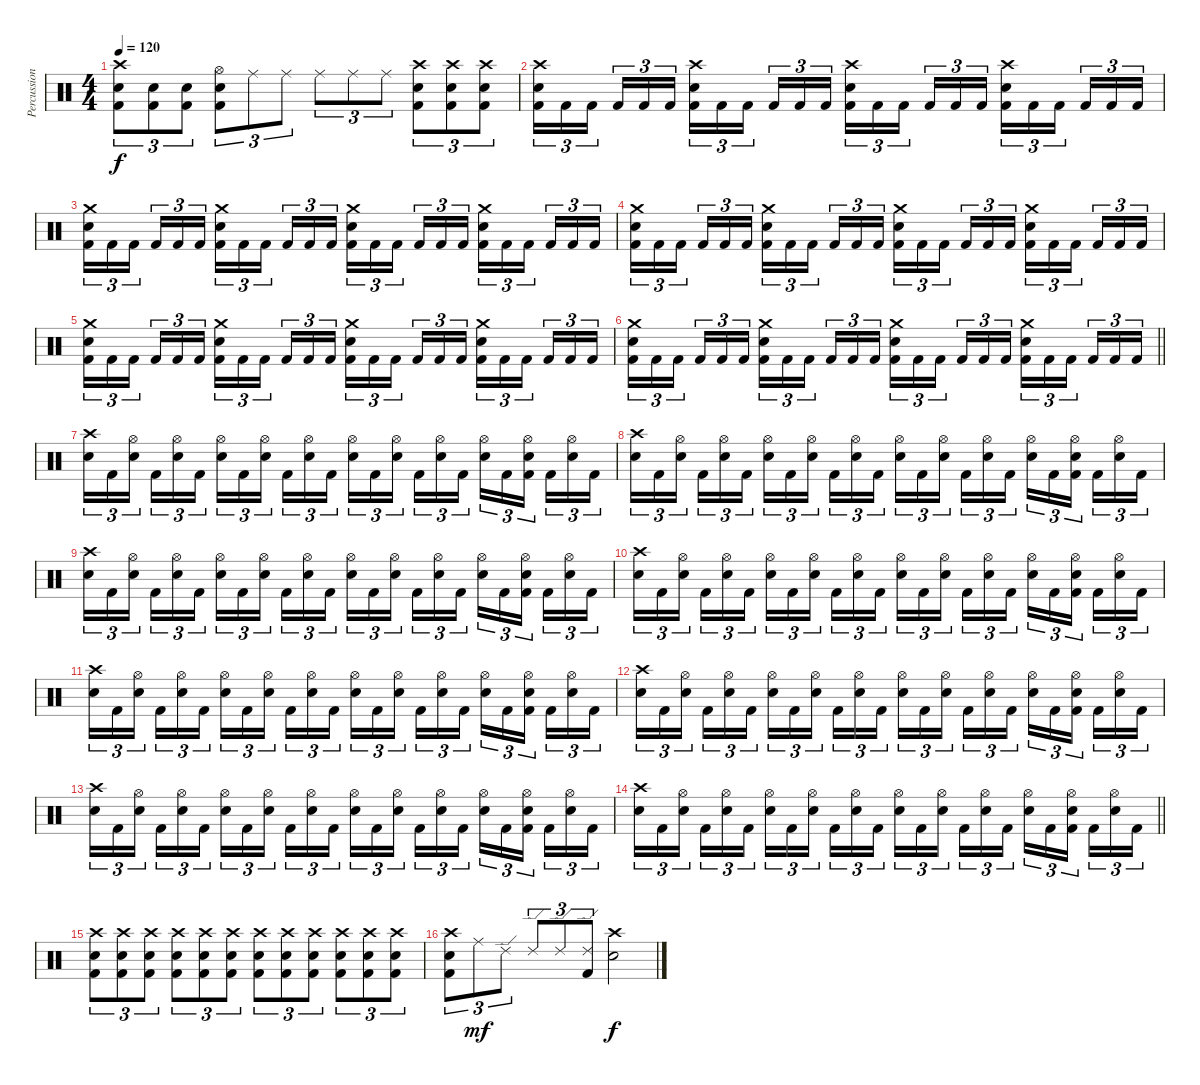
\track ("Percussion" "Percussion") {instrument percussion}
\staff {score}
\articulation defaults
\ts (4 4)
\tempo 120
\clef neutral
\ks c
("Crash high (hit)" "Snare (hit) 2" "Kick (hit) 2").8{tu (3 2) dy f} ("Snare (hit) 2" "Kick (hit) 2").8{tu (3 2)} ("Snare (hit) 2" "Kick (hit) 2").8{tu (3 2)} ("Hi-Hat (open)" "Snare (hit) 2" "Kick (hit) 2").8{tu (3 2)} "Ride (middle)".8{tu (3 2)} "Ride (middle)".8{tu (3 2)} "Ride (middle)".8{tu (3 2)} "Ride (middle)".8{tu (3 2)} "Ride (middle)".8{tu (3 2)} ("Crash high (hit)" "Snare (hit) 2" "Kick (hit) 2").8{tu (3 2)} ("Crash high (hit)" "Snare (hit) 2" "Kick (hit) 2").8{tu (3 2)} ("Crash high (hit)" "Snare (hit) 2" "Kick (hit) 2").8{tu (3 2)} |
("Crash high (hit)" "Snare (hit) 2" "Kick (hit) 2").16{tu (3 2)} "Kick (hit) 2".16{tu (3 2)} "Kick (hit) 2".16{tu (3 2) beam splitsecondary} "Kick (hit) 2".16{tu (3 2)} "Kick (hit) 2".16{tu (3 2)} "Kick (hit) 2".16{tu (3 2)} ("Crash high (hit)" "Snare (hit) 2" "Kick (hit) 2").16{tu (3 2)} "Kick (hit) 2".16{tu (3 2)} "Kick (hit) 2".16{tu (3 2) beam splitsecondary} "Kick (hit) 2".16{tu (3 2)} "Kick (hit) 2".16{tu (3 2)} "Kick (hit) 2".16{tu (3 2)} ("Crash high (hit)" "Snare (hit) 2" "Kick (hit) 2").16{tu (3 2)} "Kick (hit) 2".16{tu (3 2)} "Kick (hit) 2".16{tu (3 2) beam splitsecondary} "Kick (hit) 2".16{tu (3 2)} "Kick (hit) 2".16{tu (3 2)} "Kick (hit) 2".16{tu (3 2)} ("Crash high (hit)" "Snare (hit) 2" "Kick (hit) 2").16{tu (3 2)} "Kick (hit) 2".16{tu (3 2)} "Kick (hit) 2".16{tu (3 2) beam splitsecondary} "Kick (hit) 2".16{tu (3 2)} "Kick (hit) 2".16{tu (3 2)} "Kick (hit) 2".16{tu (3 2)} |
("Crash medium (hit)" "Snare (hit) 2" "Kick (hit) 2").16{tu (3 2)} "Kick (hit) 2".16{tu (3 2)} "Kick (hit) 2".16{tu (3 2) beam splitsecondary} "Kick (hit) 2".16{tu (3 2)} "Kick (hit) 2".16{tu (3 2)} "Kick (hit) 2".16{tu (3 2)} ("Crash medium (hit)" "Snare (hit) 2" "Kick (hit) 2").16{tu (3 2)} "Kick (hit) 2".16{tu (3 2)} "Kick (hit) 2".16{tu (3 2) beam splitsecondary} "Kick (hit) 2".16{tu (3 2)} "Kick (hit) 2".16{tu (3 2)} "Kick (hit) 2".16{tu (3 2)} ("Crash medium (hit)" "Snare (hit) 2" "Kick (hit) 2").16{tu (3 2)} "Kick (hit) 2".16{tu (3 2)} "Kick (hit) 2".16{tu (3 2) beam splitsecondary} "Kick (hit) 2".16{tu (3 2)} "Kick (hit) 2".16{tu (3 2)} "Kick (hit) 2".16{tu (3 2)} ("Crash medium (hit)" "Snare (hit) 2" "Kick (hit) 2").16{tu (3 2)} "Kick (hit) 2".16{tu (3 2)} "Kick (hit) 2".16{tu (3 2) beam splitsecondary} "Kick (hit) 2".16{tu (3 2)} "Kick (hit) 2".16{tu (3 2)} "Kick (hit) 2".16{tu (3 2)} |
("Crash medium (hit)" "Snare (hit) 2" "Kick (hit) 2").16{tu (3 2)} "Kick (hit) 2".16{tu (3 2)} "Kick (hit) 2".16{tu (3 2) beam splitsecondary} "Kick (hit) 2".16{tu (3 2)} "Kick (hit) 2".16{tu (3 2)} "Kick (hit) 2".16{tu (3 2)} ("Crash medium (hit)" "Snare (hit) 2" "Kick (hit) 2").16{tu (3 2)} "Kick (hit) 2".16{tu (3 2)} "Kick (hit) 2".16{tu (3 2) beam splitsecondary} "Kick (hit) 2".16{tu (3 2)} "Kick (hit) 2".16{tu (3 2)} "Kick (hit) 2".16{tu (3 2)} ("Crash medium (hit)" "Snare (hit) 2" "Kick (hit) 2").16{tu (3 2)} "Kick (hit) 2".16{tu (3 2)} "Kick (hit) 2".16{tu (3 2) beam splitsecondary} "Kick (hit) 2".16{tu (3 2)} "Kick (hit) 2".16{tu (3 2)} "Kick (hit) 2".16{tu (3 2)} ("Crash medium (hit)" "Snare (hit) 2" "Kick (hit) 2").16{tu (3 2)} "Kick (hit) 2".16{tu (3 2)} "Kick (hit) 2".16{tu (3 2) beam splitsecondary} "Kick (hit) 2".16{tu (3 2)} "Kick (hit) 2".16{tu (3 2)} "Kick (hit) 2".16{tu (3 2)} |
("Crash medium (hit)" "Snare (hit) 2" "Kick (hit) 2").16{tu (3 2)} "Kick (hit) 2".16{tu (3 2)} "Kick (hit) 2".16{tu (3 2) beam splitsecondary} "Kick (hit) 2".16{tu (3 2)} "Kick (hit) 2".16{tu (3 2)} "Kick (hit) 2".16{tu (3 2)} ("Crash medium (hit)" "Snare (hit) 2" "Kick (hit) 2").16{tu (3 2)} "Kick (hit) 2".16{tu (3 2)} "Kick (hit) 2".16{tu (3 2) beam splitsecondary} "Kick (hit) 2".16{tu (3 2)} "Kick (hit) 2".16{tu (3 2)} "Kick (hit) 2".16{tu (3 2)} ("Crash medium (hit)" "Snare (hit) 2" "Kick (hit) 2").16{tu (3 2)} "Kick (hit) 2".16{tu (3 2)} "Kick (hit) 2".16{tu (3 2) beam splitsecondary} "Kick (hit) 2".16{tu (3 2)} "Kick (hit) 2".16{tu (3 2)} "Kick (hit) 2".16{tu (3 2)} ("Crash medium (hit)" "Snare (hit) 2" "Kick (hit) 2").16{tu (3 2)} "Kick (hit) 2".16{tu (3 2)} "Kick (hit) 2".16{tu (3 2) beam splitsecondary} "Kick (hit) 2".16{tu (3 2)} "Kick (hit) 2".16{tu (3 2)} "Kick (hit) 2".16{tu (3 2)} |
\barLineRight lightlight
("Crash medium (hit)" "Snare (hit) 2" "Kick (hit) 2").16{tu (3 2)} "Kick (hit) 2".16{tu (3 2)} "Kick (hit) 2".16{tu (3 2) beam splitsecondary} "Kick (hit) 2".16{tu (3 2)} "Kick (hit) 2".16{tu (3 2)} "Kick (hit) 2".16{tu (3 2)} ("Crash medium (hit)" "Snare (hit) 2" "Kick (hit) 2").16{tu (3 2)} "Kick (hit) 2".16{tu (3 2)} "Kick (hit) 2".16{tu (3 2) beam splitsecondary} "Kick (hit) 2".16{tu (3 2)} "Kick (hit) 2".16{tu (3 2)} "Kick (hit) 2".16{tu (3 2)} ("Crash medium (hit)" "Snare (hit) 2" "Kick (hit) 2").16{tu (3 2)} "Kick (hit) 2".16{tu (3 2)} "Kick (hit) 2".16{tu (3 2) beam splitsecondary} "Kick (hit) 2".16{tu (3 2)} "Kick (hit) 2".16{tu (3 2)} "Kick (hit) 2".16{tu (3 2)} ("Crash medium (hit)" "Snare (hit) 2" "Kick (hit) 2").16{tu (3 2)} "Kick (hit) 2".16{tu (3 2)} "Kick (hit) 2".16{tu (3 2) beam splitsecondary} "Kick (hit) 2".16{tu (3 2)} "Kick (hit) 2".16{tu (3 2)} "Kick (hit) 2".16{tu (3 2)} |
\section ("" "")
("Crash high (hit)" "Snare (hit) 2").16{tu (3 2)} "Kick (hit) 2".16{tu (3 2)} ("Hi-Hat (open)" "Snare (hit) 2").16{tu (3 2) beam splitsecondary} "Kick (hit) 2".16{tu (3 2)} ("Hi-Hat (open)" "Snare (hit) 2").16{tu (3 2)} "Kick (hit) 2".16{tu (3 2)} ("Hi-Hat (open)" "Snare (hit) 2").16{tu (3 2)} "Kick (hit) 2".16{tu (3 2)} ("Hi-Hat (open)" "Snare (hit) 2").16{tu (3 2) beam splitsecondary} "Kick (hit) 2".16{tu (3 2)} ("Hi-Hat (open)" "Snare (hit) 2").16{tu (3 2)} "Kick (hit) 2".16{tu (3 2)} ("Hi-Hat (open)" "Snare (hit) 2").16{tu (3 2)} "Kick (hit) 2".16{tu (3 2)} ("Hi-Hat (open)" "Snare (hit) 2").16{tu (3 2) beam splitsecondary} "Kick (hit) 2".16{tu (3 2)} ("Hi-Hat (open)" "Snare (hit) 2").16{tu (3 2)} "Kick (hit) 2".16{tu (3 2)} ("Hi-Hat (open)" "Snare (hit) 2").16{tu (3 2)} "Kick (hit) 2".16{tu (3 2)} ("Hi-Hat (open)" "Snare (hit) 2" "Kick (hit) 2").16{tu (3 2) beam splitsecondary} "Kick (hit) 2".16{tu (3 2)} ("Hi-Hat (open)" "Snare (hit) 2").16{tu (3 2)} "Kick (hit) 2".16{tu (3 2)} |
("Crash high (hit)" "Snare (hit) 2").16{tu (3 2)} "Kick (hit) 2".16{tu (3 2)} ("Hi-Hat (open)" "Snare (hit) 2").16{tu (3 2) beam splitsecondary} "Kick (hit) 2".16{tu (3 2)} ("Hi-Hat (open)" "Snare (hit) 2").16{tu (3 2)} "Kick (hit) 2".16{tu (3 2)} ("Hi-Hat (open)" "Snare (hit) 2").16{tu (3 2)} "Kick (hit) 2".16{tu (3 2)} ("Hi-Hat (open)" "Snare (hit) 2").16{tu (3 2) beam splitsecondary} "Kick (hit) 2".16{tu (3 2)} ("Hi-Hat (open)" "Snare (hit) 2").16{tu (3 2)} "Kick (hit) 2".16{tu (3 2)} ("Hi-Hat (open)" "Snare (hit) 2").16{tu (3 2)} "Kick (hit) 2".16{tu (3 2)} ("Hi-Hat (open)" "Snare (hit) 2").16{tu (3 2) beam splitsecondary} "Kick (hit) 2".16{tu (3 2)} ("Hi-Hat (open)" "Snare (hit) 2").16{tu (3 2)} "Kick (hit) 2".16{tu (3 2)} ("Hi-Hat (open)" "Snare (hit) 2").16{tu (3 2)} "Kick (hit) 2".16{tu (3 2)} ("Hi-Hat (open)" "Snare (hit) 2" "Kick (hit) 2").16{tu (3 2) beam splitsecondary} "Kick (hit) 2".16{tu (3 2)} ("Hi-Hat (open)" "Snare (hit) 2").16{tu (3 2)} "Kick (hit) 2".16{tu (3 2)} |
("Crash high (hit)" "Snare (hit) 2").16{tu (3 2)} "Kick (hit) 2".16{tu (3 2)} ("Hi-Hat (open)" "Snare (hit) 2").16{tu (3 2) beam splitsecondary} "Kick (hit) 2".16{tu (3 2)} ("Hi-Hat (open)" "Snare (hit) 2").16{tu (3 2)} "Kick (hit) 2".16{tu (3 2)} ("Hi-Hat (open)" "Snare (hit) 2").16{tu (3 2)} "Kick (hit) 2".16{tu (3 2)} ("Hi-Hat (open)" "Snare (hit) 2").16{tu (3 2) beam splitsecondary} "Kick (hit) 2".16{tu (3 2)} ("Hi-Hat (open)" "Snare (hit) 2").16{tu (3 2)} "Kick (hit) 2".16{tu (3 2)} ("Hi-Hat (open)" "Snare (hit) 2").16{tu (3 2)} "Kick (hit) 2".16{tu (3 2)} ("Hi-Hat (open)" "Snare (hit) 2").16{tu (3 2) beam splitsecondary} "Kick (hit) 2".16{tu (3 2)} ("Hi-Hat (open)" "Snare (hit) 2").16{tu (3 2)} "Kick (hit) 2".16{tu (3 2)} ("Hi-Hat (open)" "Snare (hit) 2").16{tu (3 2)} "Kick (hit) 2".16{tu (3 2)} ("Hi-Hat (open)" "Snare (hit) 2" "Kick (hit) 2").16{tu (3 2) beam splitsecondary} "Kick (hit) 2".16{tu (3 2)} ("Hi-Hat (open)" "Snare (hit) 2").16{tu (3 2)} "Kick (hit) 2".16{tu (3 2)} |
("Crash high (hit)" "Snare (hit) 2").16{tu (3 2)} "Kick (hit) 2".16{tu (3 2)} ("Hi-Hat (open)" "Snare (hit) 2").16{tu (3 2) beam splitsecondary} "Kick (hit) 2".16{tu (3 2)} ("Hi-Hat (open)" "Snare (hit) 2").16{tu (3 2)} "Kick (hit) 2".16{tu (3 2)} ("Hi-Hat (open)" "Snare (hit) 2").16{tu (3 2)} "Kick (hit) 2".16{tu (3 2)} ("Hi-Hat (open)" "Snare (hit) 2").16{tu (3 2) beam splitsecondary} "Kick (hit) 2".16{tu (3 2)} ("Hi-Hat (open)" "Snare (hit) 2").16{tu (3 2)} "Kick (hit) 2".16{tu (3 2)} ("Hi-Hat (open)" "Snare (hit) 2").16{tu (3 2)} "Kick (hit) 2".16{tu (3 2)} ("Hi-Hat (open)" "Snare (hit) 2").16{tu (3 2) beam splitsecondary} "Kick (hit) 2".16{tu (3 2)} ("Hi-Hat (open)" "Snare (hit) 2").16{tu (3 2)} "Kick (hit) 2".16{tu (3 2)} ("Hi-Hat (open)" "Snare (hit) 2").16{tu (3 2)} "Kick (hit) 2".16{tu (3 2)} ("Hi-Hat (open)" "Snare (hit) 2" "Kick (hit) 2").16{tu (3 2) beam splitsecondary} "Kick (hit) 2".16{tu (3 2)} ("Hi-Hat (open)" "Snare (hit) 2").16{tu (3 2)} "Kick (hit) 2".16{tu (3 2)} |
("Crash high (hit)" "Snare (hit) 2").16{tu (3 2)} "Kick (hit) 2".16{tu (3 2)} ("Hi-Hat (open)" "Snare (hit) 2").16{tu (3 2) beam splitsecondary} "Kick (hit) 2".16{tu (3 2)} ("Hi-Hat (open)" "Snare (hit) 2").16{tu (3 2)} "Kick (hit) 2".16{tu (3 2)} ("Hi-Hat (open)" "Snare (hit) 2").16{tu (3 2)} "Kick (hit) 2".16{tu (3 2)} ("Hi-Hat (open)" "Snare (hit) 2").16{tu (3 2) beam splitsecondary} "Kick (hit) 2".16{tu (3 2)} ("Hi-Hat (open)" "Snare (hit) 2").16{tu (3 2)} "Kick (hit) 2".16{tu (3 2)} ("Hi-Hat (open)" "Snare (hit) 2").16{tu (3 2)} "Kick (hit) 2".16{tu (3 2)} ("Hi-Hat (open)" "Snare (hit) 2").16{tu (3 2) beam splitsecondary} "Kick (hit) 2".16{tu (3 2)} ("Hi-Hat (open)" "Snare (hit) 2").16{tu (3 2)} "Kick (hit) 2".16{tu (3 2)} ("Hi-Hat (open)" "Snare (hit) 2").16{tu (3 2)} "Kick (hit) 2".16{tu (3 2)} ("Hi-Hat (open)" "Snare (hit) 2" "Kick (hit) 2").16{tu (3 2) beam splitsecondary} "Kick (hit) 2".16{tu (3 2)} ("Hi-Hat (open)" "Snare (hit) 2").16{tu (3 2)} "Kick (hit) 2".16{tu (3 2)} |
("Crash high (hit)" "Snare (hit) 2").16{tu (3 2)} "Kick (hit) 2".16{tu (3 2)} ("Hi-Hat (open)" "Snare (hit) 2").16{tu (3 2) beam splitsecondary} "Kick (hit) 2".16{tu (3 2)} ("Hi-Hat (open)" "Snare (hit) 2").16{tu (3 2)} "Kick (hit) 2".16{tu (3 2)} ("Hi-Hat (open)" "Snare (hit) 2").16{tu (3 2)} "Kick (hit) 2".16{tu (3 2)} ("Hi-Hat (open)" "Snare (hit) 2").16{tu (3 2) beam splitsecondary} "Kick (hit) 2".16{tu (3 2)} ("Hi-Hat (open)" "Snare (hit) 2").16{tu (3 2)} "Kick (hit) 2".16{tu (3 2)} ("Hi-Hat (open)" "Snare (hit) 2").16{tu (3 2)} "Kick (hit) 2".16{tu (3 2)} ("Hi-Hat (open)" "Snare (hit) 2").16{tu (3 2) beam splitsecondary} "Kick (hit) 2".16{tu (3 2)} ("Hi-Hat (open)" "Snare (hit) 2").16{tu (3 2)} "Kick (hit) 2".16{tu (3 2)} ("Hi-Hat (open)" "Snare (hit) 2").16{tu (3 2)} "Kick (hit) 2".16{tu (3 2)} ("Hi-Hat (open)" "Snare (hit) 2" "Kick (hit) 2").16{tu (3 2) beam splitsecondary} "Kick (hit) 2".16{tu (3 2)} ("Hi-Hat (open)" "Snare (hit) 2").16{tu (3 2)} "Kick (hit) 2".16{tu (3 2)} |
("Crash high (hit)" "Snare (hit) 2").16{tu (3 2)} "Kick (hit) 2".16{tu (3 2)} ("Hi-Hat (open)" "Snare (hit) 2").16{tu (3 2) beam splitsecondary} "Kick (hit) 2".16{tu (3 2)} ("Hi-Hat (open)" "Snare (hit) 2").16{tu (3 2)} "Kick (hit) 2".16{tu (3 2)} ("Hi-Hat (open)" "Snare (hit) 2").16{tu (3 2)} "Kick (hit) 2".16{tu (3 2)} ("Hi-Hat (open)" "Snare (hit) 2").16{tu (3 2) beam splitsecondary} "Kick (hit) 2".16{tu (3 2)} ("Hi-Hat (open)" "Snare (hit) 2").16{tu (3 2)} "Kick (hit) 2".16{tu (3 2)} ("Hi-Hat (open)" "Snare (hit) 2").16{tu (3 2)} "Kick (hit) 2".16{tu (3 2)} ("Hi-Hat (open)" "Snare (hit) 2").16{tu (3 2) beam splitsecondary} "Kick (hit) 2".16{tu (3 2)} ("Hi-Hat (open)" "Snare (hit) 2").16{tu (3 2)} "Kick (hit) 2".16{tu (3 2)} ("Hi-Hat (open)" "Snare (hit) 2").16{tu (3 2)} "Kick (hit) 2".16{tu (3 2)} ("Hi-Hat (open)" "Snare (hit) 2" "Kick (hit) 2").16{tu (3 2) beam splitsecondary} "Kick (hit) 2".16{tu (3 2)} ("Hi-Hat (open)" "Snare (hit) 2").16{tu (3 2)} "Kick (hit) 2".16{tu (3 2)} |
\barLineRight lightlight
("Crash high (hit)" "Snare (hit) 2").16{tu (3 2)} "Kick (hit) 2".16{tu (3 2)} ("Hi-Hat (open)" "Snare (hit) 2").16{tu (3 2) beam splitsecondary} "Kick (hit) 2".16{tu (3 2)} ("Hi-Hat (open)" "Snare (hit) 2").16{tu (3 2)} "Kick (hit) 2".16{tu (3 2)} ("Hi-Hat (open)" "Snare (hit) 2").16{tu (3 2)} "Kick (hit) 2".16{tu (3 2)} ("Hi-Hat (open)" "Snare (hit) 2").16{tu (3 2) beam splitsecondary} "Kick (hit) 2".16{tu (3 2)} ("Hi-Hat (open)" "Snare (hit) 2").16{tu (3 2)} "Kick (hit) 2".16{tu (3 2)} ("Hi-Hat (open)" "Snare (hit) 2").16{tu (3 2)} "Kick (hit) 2".16{tu (3 2)} ("Hi-Hat (open)" "Snare (hit) 2").16{tu (3 2) beam splitsecondary} "Kick (hit) 2".16{tu (3 2)} ("Hi-Hat (open)" "Snare (hit) 2").16{tu (3 2)} "Kick (hit) 2".16{tu (3 2)} ("Hi-Hat (open)" "Snare (hit) 2").16{tu (3 2)} "Kick (hit) 2".16{tu (3 2)} ("Hi-Hat (open)" "Snare (hit) 2" "Kick (hit) 2").16{tu (3 2) beam splitsecondary} "Kick (hit) 2".16{tu (3 2)} ("Hi-Hat (open)" "Snare (hit) 2").16{tu (3 2)} "Kick (hit) 2".16{tu (3 2)} |
("Crash high (hit)" "Snare (hit) 2" "Kick (hit) 2").8{tu (3 2)} ("Crash high (hit)" "Snare (hit) 2" "Kick (hit) 2").8{tu (3 2)} ("Crash high (hit)" "Snare (hit) 2" "Kick (hit) 2").8{tu (3 2)} ("Crash high (hit)" "Snare (hit) 2" "Kick (hit) 2").8{tu (3 2)} ("Crash high (hit)" "Snare (hit) 2" "Kick (hit) 2").8{tu (3 2)} ("Crash high (hit)" "Snare (hit) 2" "Kick (hit) 2").8{tu (3 2)} ("Crash high (hit)" "Snare (hit) 2" "Kick (hit) 2").8{tu (3 2)} ("Crash high (hit)" "Snare (hit) 2" "Kick (hit) 2").8{tu (3 2)} ("Crash high (hit)" "Snare (hit) 2" "Kick (hit) 2").8{tu (3 2)} ("Crash high (hit)" "Snare (hit) 2" "Kick (hit) 2").8{tu (3 2)} ("Crash high (hit)" "Snare (hit) 2" "Kick (hit) 2").8{tu (3 2)} ("Crash high (hit)" "Snare (hit) 2" "Kick (hit) 2").8{tu (3 2)} |
("Crash high (hit)" "Snare (hit) 2" "Kick (hit) 2").8{tu (3 2)} "Ride (middle)".8{tu (3 2) dy mf} "Ride (edge) 2".8{tu (3 2)} "Ride (edge) 2".8{tu (3 2)} "Ride (edge) 2".8{tu (3 2)} ("Ride (edge) 2" "Kick (hit) 2").8{tu (3 2)} ("Crash high (hit)" "Snare (hit) 2").2{dy f}
